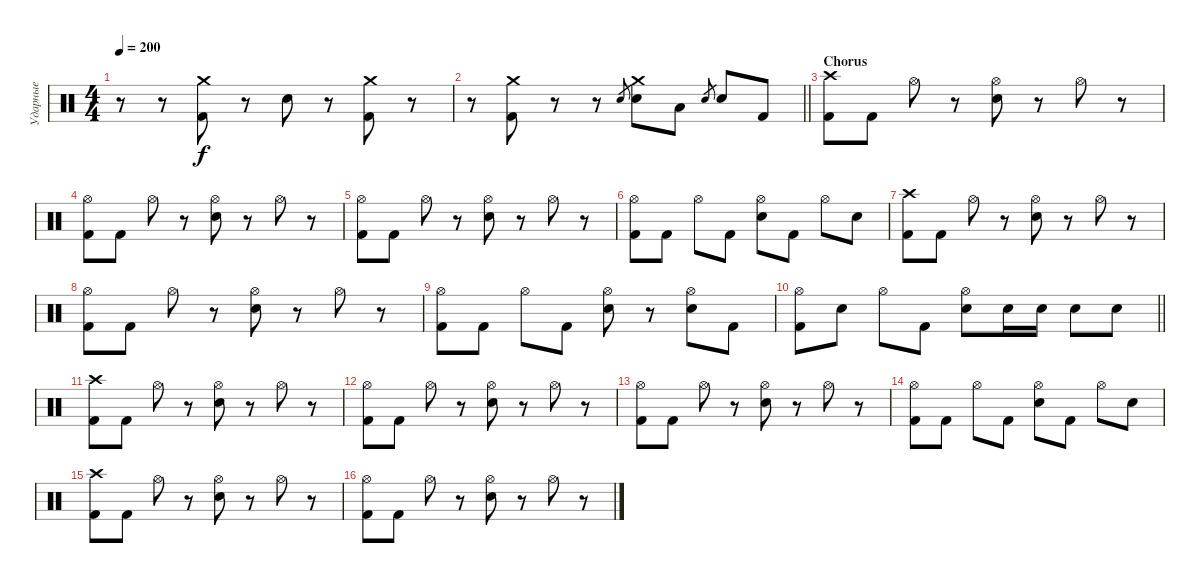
\track ("Ударные" "Ударные") {instrument percussion}
\staff {score}
\articulation defaults
\ts (4 4)
\tempo 200
\clef neutral
\ks c
r.8{dy f} r.8 ("Crash medium (hit)" "Kick (hit) 2").8 r.8 "Electric Snare (hit)".8 r.8 ("Crash medium (hit)" "Kick (hit) 2").8 r.8 |
\barLineRight lightlight
r.8 ("Crash medium (hit)" "Kick (hit) 2").8 r.8 r.8 "Electric Snare (hit)".8{gr} ("Crash medium (hit)" "Electric Snare (hit)").8 "Low Tom (hit)".8 "Electric Snare (hit)".8{gr} "Electric Snare (hit)".8 "Kick (hit) 2".8 |
\section ("" "Chorus")
("Crash high (hit)" "Kick (hit) 2").8 "Kick (hit) 2".8 "Hi-Hat (open)".8 r.8 ("Hi-Hat (open)" "Electric Snare (hit)").8 r.8 "Hi-Hat (open)".8 r.8 |
("Hi-Hat (open)" "Kick (hit) 2").8 "Kick (hit) 2".8 "Hi-Hat (open)".8 r.8 ("Hi-Hat (open)" "Electric Snare (hit)").8 r.8 "Hi-Hat (open)".8 r.8 |
("Hi-Hat (open)" "Kick (hit) 2").8 "Kick (hit) 2".8 "Hi-Hat (open)".8 r.8 ("Hi-Hat (open)" "Electric Snare (hit)").8 r.8 "Hi-Hat (open)".8 r.8 |
("Hi-Hat (open)" "Kick (hit) 2").8 "Kick (hit) 2".8 "Hi-Hat (open)".8 "Kick (hit) 2".8 ("Hi-Hat (open)" "Electric Snare (hit)").8 "Kick (hit) 2".8 "Hi-Hat (open)".8 "Electric Snare (hit)".8 |
("Crash high (hit)" "Kick (hit) 2").8 "Kick (hit) 2".8 "Hi-Hat (open)".8 r.8 ("Hi-Hat (open)" "Electric Snare (hit)").8 r.8 "Hi-Hat (open)".8 r.8 |
("Hi-Hat (open)" "Kick (hit) 2").8 "Kick (hit) 2".8 "Hi-Hat (open)".8 r.8 ("Hi-Hat (open)" "Electric Snare (hit)").8 r.8 "Hi-Hat (open)".8 r.8 |
("Hi-Hat (open)" "Kick (hit) 2").8 "Kick (hit) 2".8 "Hi-Hat (open)".8 "Kick (hit) 2".8 ("Hi-Hat (open)" "Electric Snare (hit)").8 r.8 ("Hi-Hat (open)" "Electric Snare (hit)").8 "Kick (hit) 2".8 |
\barLineRight lightlight
("Hi-Hat (open)" "Kick (hit) 2").8 "Electric Snare (hit)".8 "Hi-Hat (open)".8 "Kick (hit) 2".8 ("Hi-Hat (open)" "Electric Snare (hit)").8 "Electric Snare (hit)".16 "Electric Snare (hit)".16 "Electric Snare (hit)".8 "Electric Snare (hit)".8 |
("Crash high (hit)" "Kick (hit) 2").8 "Kick (hit) 2".8 "Hi-Hat (open)".8 r.8 ("Hi-Hat (open)" "Electric Snare (hit)").8 r.8 "Hi-Hat (open)".8 r.8 |
("Hi-Hat (open)" "Kick (hit) 2").8 "Kick (hit) 2".8 "Hi-Hat (open)".8 r.8 ("Hi-Hat (open)" "Electric Snare (hit)").8 r.8 "Hi-Hat (open)".8 r.8 |
("Hi-Hat (open)" "Kick (hit) 2").8 "Kick (hit) 2".8 "Hi-Hat (open)".8 r.8 ("Hi-Hat (open)" "Electric Snare (hit)").8 r.8 "Hi-Hat (open)".8 r.8 |
("Hi-Hat (open)" "Kick (hit) 2").8 "Kick (hit) 2".8 "Hi-Hat (open)".8 "Kick (hit) 2".8 ("Hi-Hat (open)" "Electric Snare (hit)").8 "Kick (hit) 2".8 "Hi-Hat (open)".8 "Electric Snare (hit)".8 |
("Crash high (hit)" "Kick (hit) 2").8 "Kick (hit) 2".8 "Hi-Hat (open)".8 r.8 ("Hi-Hat (open)" "Electric Snare (hit)").8 r.8 "Hi-Hat (open)".8 r.8 |
("Hi-Hat (open)" "Kick (hit) 2").8 "Kick (hit) 2".8 "Hi-Hat (open)".8 r.8 ("Hi-Hat (open)" "Electric Snare (hit)").8 r.8 "Hi-Hat (open)".8 r.8
